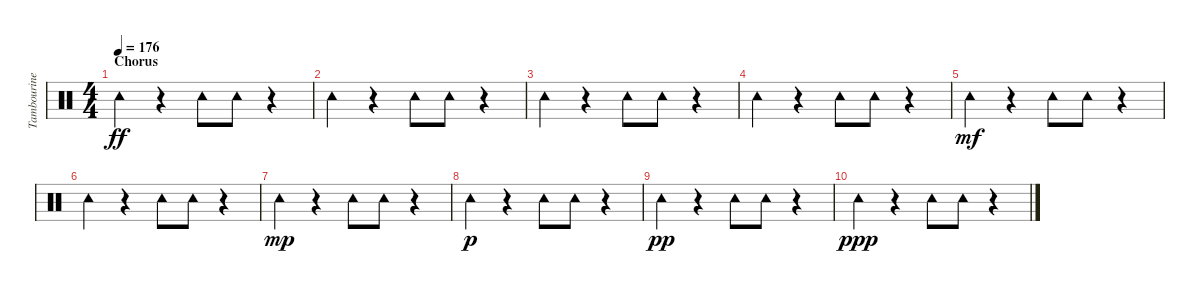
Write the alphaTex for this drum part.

\track ("Tambourine" "Tambourine") {instrument percussion}
\staff {score}
\articulation defaults
\ts (4 4)
\section ("" "Chorus")
\tempo 176
\clef neutral
\ks c "Tambourine (hit)".4{dy ff}
r.4 "Tambourine (hit)".8 "Tambourine (hit)".8 r.4 |
"Tambourine (hit)".4 r.4 "Tambourine (hit)".8 "Tambourine (hit)".8 r.4 |
"Tambourine (hit)".4 r.4 "Tambourine (hit)".8 "Tambourine (hit)".8 r.4 |
"Tambourine (hit)".4 r.4 "Tambourine (hit)".8 "Tambourine (hit)".8 r.4 |
"Tambourine (hit)".4{dy mf} r.4 "Tambourine (hit)".8 "Tambourine (hit)".8 r.4 |
"Tambourine (hit)".4 r.4 "Tambourine (hit)".8 "Tambourine (hit)".8 r.4 |
"Tambourine (hit)".4{dy mp} r.4 "Tambourine (hit)".8 "Tambourine (hit)".8 r.4 |
"Tambourine (hit)".4{dy p} r.4 "Tambourine (hit)".8 "Tambourine (hit)".8 r.4 |
"Tambourine (hit)".4{dy pp} r.4 "Tambourine (hit)".8 "Tambourine (hit)".8 r.4 |
"Tambourine (hit)".4{dy ppp} r.4 "Tambourine (hit)".8 "Tambourine (hit)".8 r.4
